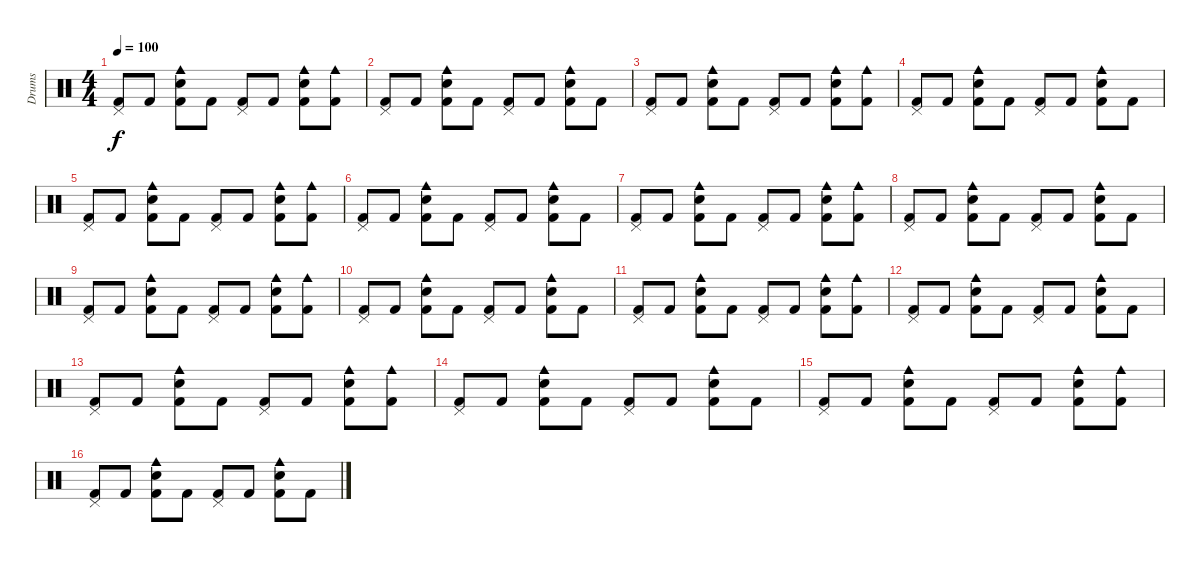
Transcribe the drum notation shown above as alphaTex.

\track ("Drums" "Drums") {instrument percussion}
\staff {score}
\articulation defaults
\ts (4 4)
\tempo 100
\clef neutral
\ks c
("Kick (hit) 2" "Pedal Hi-Hat (hit)").8{dy f} "Kick (hit) 2".8 ("Kick (hit) 2" "Snare (hit) 2" "Cowbell medium (hit)").8 "Kick (hit) 2".8 ("Kick (hit) 2" "Pedal Hi-Hat (hit)").8 "Kick (hit) 2".8 ("Kick (hit) 2" "Snare (hit) 2" "Cowbell medium (hit)").8 ("Kick (hit) 2" "Cowbell medium (hit)").8 |
("Kick (hit) 2" "Pedal Hi-Hat (hit)").8 "Kick (hit) 2".8 ("Kick (hit) 2" "Snare (hit) 2" "Cowbell medium (hit)").8 "Kick (hit) 2".8 ("Kick (hit) 2" "Pedal Hi-Hat (hit)").8 "Kick (hit) 2".8 ("Kick (hit) 2" "Snare (hit) 2" "Cowbell medium (hit)").8 "Kick (hit) 2".8 |
("Kick (hit) 2" "Pedal Hi-Hat (hit)").8 "Kick (hit) 2".8 ("Kick (hit) 2" "Snare (hit) 2" "Cowbell medium (hit)").8 "Kick (hit) 2".8 ("Kick (hit) 2" "Pedal Hi-Hat (hit)").8 "Kick (hit) 2".8 ("Kick (hit) 2" "Snare (hit) 2" "Cowbell medium (hit)").8 ("Kick (hit) 2" "Cowbell medium (hit)").8 |
("Kick (hit) 2" "Pedal Hi-Hat (hit)").8 "Kick (hit) 2".8 ("Kick (hit) 2" "Snare (hit) 2" "Cowbell medium (hit)").8 "Kick (hit) 2".8 ("Kick (hit) 2" "Pedal Hi-Hat (hit)").8 "Kick (hit) 2".8 ("Kick (hit) 2" "Snare (hit) 2" "Cowbell medium (hit)").8 "Kick (hit) 2".8 |
("Kick (hit) 2" "Pedal Hi-Hat (hit)").8 "Kick (hit) 2".8 ("Kick (hit) 2" "Snare (hit) 2" "Cowbell medium (hit)").8 "Kick (hit) 2".8 ("Kick (hit) 2" "Pedal Hi-Hat (hit)").8 "Kick (hit) 2".8 ("Kick (hit) 2" "Snare (hit) 2" "Cowbell medium (hit)").8 ("Kick (hit) 2" "Cowbell medium (hit)").8 |
("Kick (hit) 2" "Pedal Hi-Hat (hit)").8 "Kick (hit) 2".8 ("Kick (hit) 2" "Snare (hit) 2" "Cowbell medium (hit)").8 "Kick (hit) 2".8 ("Kick (hit) 2" "Pedal Hi-Hat (hit)").8 "Kick (hit) 2".8 ("Kick (hit) 2" "Snare (hit) 2" "Cowbell medium (hit)").8 "Kick (hit) 2".8 |
("Kick (hit) 2" "Pedal Hi-Hat (hit)").8 "Kick (hit) 2".8 ("Kick (hit) 2" "Snare (hit) 2" "Cowbell medium (hit)").8 "Kick (hit) 2".8 ("Kick (hit) 2" "Pedal Hi-Hat (hit)").8 "Kick (hit) 2".8 ("Kick (hit) 2" "Snare (hit) 2" "Cowbell medium (hit)").8 ("Kick (hit) 2" "Cowbell medium (hit)").8 |
("Kick (hit) 2" "Pedal Hi-Hat (hit)").8 "Kick (hit) 2".8 ("Kick (hit) 2" "Snare (hit) 2" "Cowbell medium (hit)").8 "Kick (hit) 2".8 ("Kick (hit) 2" "Pedal Hi-Hat (hit)").8 "Kick (hit) 2".8 ("Kick (hit) 2" "Snare (hit) 2" "Cowbell medium (hit)").8 "Kick (hit) 2".8 |
("Kick (hit) 2" "Pedal Hi-Hat (hit)").8 "Kick (hit) 2".8 ("Kick (hit) 2" "Snare (hit) 2" "Cowbell medium (hit)").8 "Kick (hit) 2".8 ("Kick (hit) 2" "Pedal Hi-Hat (hit)").8 "Kick (hit) 2".8 ("Kick (hit) 2" "Snare (hit) 2" "Cowbell medium (hit)").8 ("Kick (hit) 2" "Cowbell medium (hit)").8 |
("Kick (hit) 2" "Pedal Hi-Hat (hit)").8 "Kick (hit) 2".8 ("Kick (hit) 2" "Snare (hit) 2" "Cowbell medium (hit)").8 "Kick (hit) 2".8 ("Kick (hit) 2" "Pedal Hi-Hat (hit)").8 "Kick (hit) 2".8 ("Kick (hit) 2" "Snare (hit) 2" "Cowbell medium (hit)").8 "Kick (hit) 2".8 |
("Kick (hit) 2" "Pedal Hi-Hat (hit)").8 "Kick (hit) 2".8 ("Kick (hit) 2" "Snare (hit) 2" "Cowbell medium (hit)").8 "Kick (hit) 2".8 ("Kick (hit) 2" "Pedal Hi-Hat (hit)").8 "Kick (hit) 2".8 ("Kick (hit) 2" "Snare (hit) 2" "Cowbell medium (hit)").8 ("Kick (hit) 2" "Cowbell medium (hit)").8 |
("Kick (hit) 2" "Pedal Hi-Hat (hit)").8 "Kick (hit) 2".8 ("Kick (hit) 2" "Snare (hit) 2" "Cowbell medium (hit)").8 "Kick (hit) 2".8 ("Kick (hit) 2" "Pedal Hi-Hat (hit)").8 "Kick (hit) 2".8 ("Kick (hit) 2" "Snare (hit) 2" "Cowbell medium (hit)").8 "Kick (hit) 2".8 |
("Kick (hit) 2" "Pedal Hi-Hat (hit)").8 "Kick (hit) 2".8 ("Kick (hit) 2" "Snare (hit) 2" "Cowbell medium (hit)").8 "Kick (hit) 2".8 ("Kick (hit) 2" "Pedal Hi-Hat (hit)").8 "Kick (hit) 2".8 ("Kick (hit) 2" "Snare (hit) 2" "Cowbell medium (hit)").8 ("Kick (hit) 2" "Cowbell medium (hit)").8 |
("Kick (hit) 2" "Pedal Hi-Hat (hit)").8 "Kick (hit) 2".8 ("Kick (hit) 2" "Snare (hit) 2" "Cowbell medium (hit)").8 "Kick (hit) 2".8 ("Kick (hit) 2" "Pedal Hi-Hat (hit)").8 "Kick (hit) 2".8 ("Kick (hit) 2" "Snare (hit) 2" "Cowbell medium (hit)").8 "Kick (hit) 2".8 |
("Kick (hit) 2" "Pedal Hi-Hat (hit)").8 "Kick (hit) 2".8 ("Kick (hit) 2" "Snare (hit) 2" "Cowbell medium (hit)").8 "Kick (hit) 2".8 ("Kick (hit) 2" "Pedal Hi-Hat (hit)").8 "Kick (hit) 2".8 ("Kick (hit) 2" "Snare (hit) 2" "Cowbell medium (hit)").8 ("Kick (hit) 2" "Cowbell medium (hit)").8 |
("Kick (hit) 2" "Pedal Hi-Hat (hit)").8 "Kick (hit) 2".8 ("Kick (hit) 2" "Snare (hit) 2" "Cowbell medium (hit)").8 "Kick (hit) 2".8 ("Kick (hit) 2" "Pedal Hi-Hat (hit)").8 "Kick (hit) 2".8 ("Kick (hit) 2" "Snare (hit) 2" "Cowbell medium (hit)").8 "Kick (hit) 2".8
